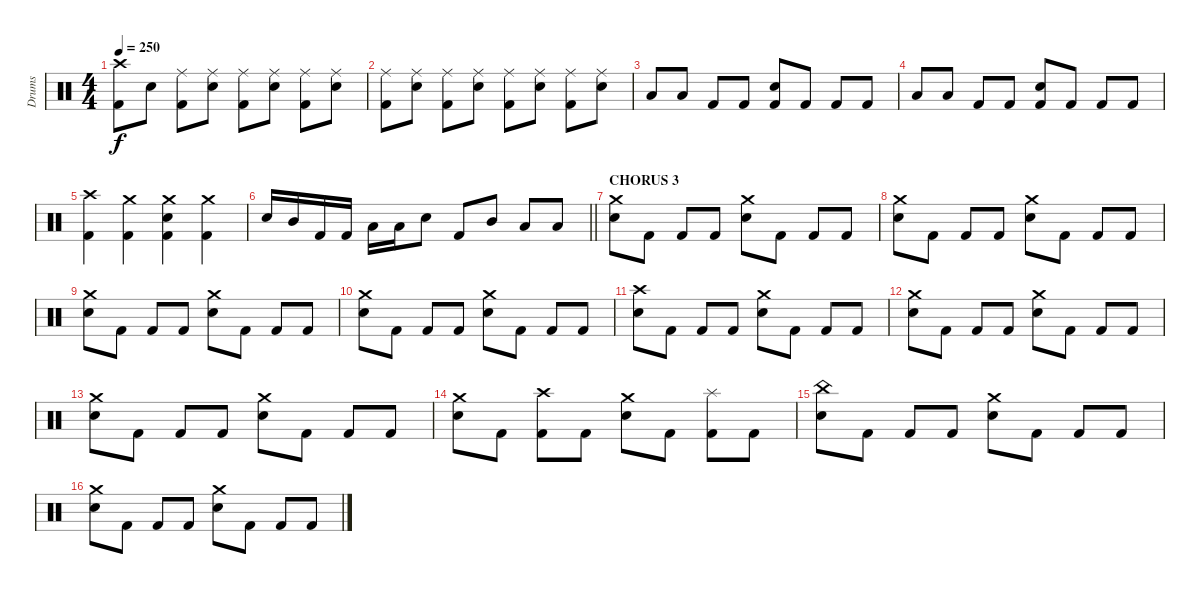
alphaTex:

\track ("Drums" "Drums") {instrument percussion}
\staff {score}
\articulation defaults
\ts (4 4)
\tempo 250
\clef neutral
\ks c
("Crash high (hit)" "Kick (hit) 2").8{dy f} "Electric Snare (hit)".8 ("Ride (middle)" "Kick (hit) 2").8 ("Ride (middle)" "Electric Snare (hit)").8 ("Ride (middle)" "Kick (hit) 2").8 ("Ride (middle)" "Electric Snare (hit)").8 ("Ride (middle)" "Kick (hit) 2").8 ("Ride (middle)" "Electric Snare (hit)").8 |
("Ride (middle)" "Kick (hit) 2").8 ("Ride (middle)" "Electric Snare (hit)").8 ("Ride (middle)" "Kick (hit) 2").8 ("Ride (middle)" "Electric Snare (hit)").8 ("Ride (middle)" "Kick (hit) 2").8 ("Ride (middle)" "Electric Snare (hit)").8 ("Ride (middle)" "Kick (hit) 2").8 ("Ride (middle)" "Electric Snare (hit)").8 |
"Low Tom (hit)".8 "Low Floor Tom (hit)".8 "Kick (hit) 2".8 "Kick (hit) 2".8 ("Electric Snare (hit)" "Kick (hit) 2").8 "Kick (hit) 2".8 "Kick (hit) 2".8 "Kick (hit) 2".8 |
"Low Tom (hit)".8 "Low Floor Tom (hit)".8 "Kick (hit) 2".8 "Kick (hit) 2".8 ("Electric Snare (hit)" "Kick (hit) 2").8 "Kick (hit) 2".8 "Kick (hit) 2".8 "Kick (hit) 2".8 |
("Crash high (hit)" "Kick (hit) 2").4 ("Crash medium (hit)" "Kick (hit) 2").4 ("Crash medium (hit)" "Electric Snare (hit)" "Kick (hit) 2").4 ("Crash medium (hit)" "Kick (hit) 2").4 |
\barLineRight lightlight "Electric Snare (hit)".16 "Mid Tom (hit)".16 "Kick (hit) 2".16 "Kick (hit) 2".16 "Low Tom (hit)".16 "Low Tom (hit)".16 "Electric Snare (hit)".8 "Kick (hit) 2".8 "Mid Tom (hit)".8 "Low Tom (hit)".8 "Low Floor Tom (hit)".8
|
\section ("" "CHORUS 3")
("Crash medium (hit)" "Electric Snare (hit)").8 "Kick (hit) 2".8 "Kick (hit) 2".8 "Kick (hit) 2".8 ("Crash medium (hit)" "Electric Snare (hit)").8 "Kick (hit) 2".8 "Kick (hit) 2".8 "Kick (hit) 2".8 |
("Crash medium (hit)" "Electric Snare (hit)").8 "Kick (hit) 2".8 "Kick (hit) 2".8 "Kick (hit) 2".8 ("Crash medium (hit)" "Electric Snare (hit)").8 "Kick (hit) 2".8 "Kick (hit) 2".8 "Kick (hit) 2".8 |
("Crash medium (hit)" "Electric Snare (hit)").8 "Kick (hit) 2".8 "Kick (hit) 2".8 "Kick (hit) 2".8 ("Crash medium (hit)" "Electric Snare (hit)").8 "Kick (hit) 2".8 "Kick (hit) 2".8 "Kick (hit) 2".8 |
("Crash medium (hit)" "Electric Snare (hit)").8 "Kick (hit) 2".8 "Kick (hit) 2".8 "Kick (hit) 2".8 ("Crash medium (hit)" "Electric Snare (hit)").8 "Kick (hit) 2".8 "Kick (hit) 2".8 "Kick (hit) 2".8 |
("Crash high (hit)" "Electric Snare (hit)").8 "Kick (hit) 2".8 "Kick (hit) 2".8 "Kick (hit) 2".8 ("Crash medium (hit)" "Electric Snare (hit)").8 "Kick (hit) 2".8 "Kick (hit) 2".8 "Kick (hit) 2".8 |
("Crash medium (hit)" "Electric Snare (hit)").8 "Kick (hit) 2".8 "Kick (hit) 2".8 "Kick (hit) 2".8 ("Crash medium (hit)" "Electric Snare (hit)").8 "Kick (hit) 2".8 "Kick (hit) 2".8 "Kick (hit) 2".8 |
("Crash medium (hit)" "Electric Snare (hit)").8 "Kick (hit) 2".8 "Kick (hit) 2".8 "Kick (hit) 2".8 ("Crash medium (hit)" "Electric Snare (hit)").8 "Kick (hit) 2".8 "Kick (hit) 2".8 "Kick (hit) 2".8 |
("Crash medium (hit)" "Electric Snare (hit)").8 "Kick (hit) 2".8 ("Crash high (hit)" "Kick (hit) 2").8 "Kick (hit) 2".8 ("Crash medium (hit)" "Electric Snare (hit)").8 "Kick (hit) 2".8 ("Splash (hit)" "Kick (hit) 2").8 "Kick (hit) 2".8 |
("China (hit)" "Electric Snare (hit)").8 "Kick (hit) 2".8 "Kick (hit) 2".8 "Kick (hit) 2".8 ("Crash medium (hit)" "Electric Snare (hit)").8 "Kick (hit) 2".8 "Kick (hit) 2".8 "Kick (hit) 2".8 |
("Crash medium (hit)" "Electric Snare (hit)").8 "Kick (hit) 2".8 "Kick (hit) 2".8 "Kick (hit) 2".8 ("Crash medium (hit)" "Electric Snare (hit)").8 "Kick (hit) 2".8 "Kick (hit) 2".8 "Kick (hit) 2".8
